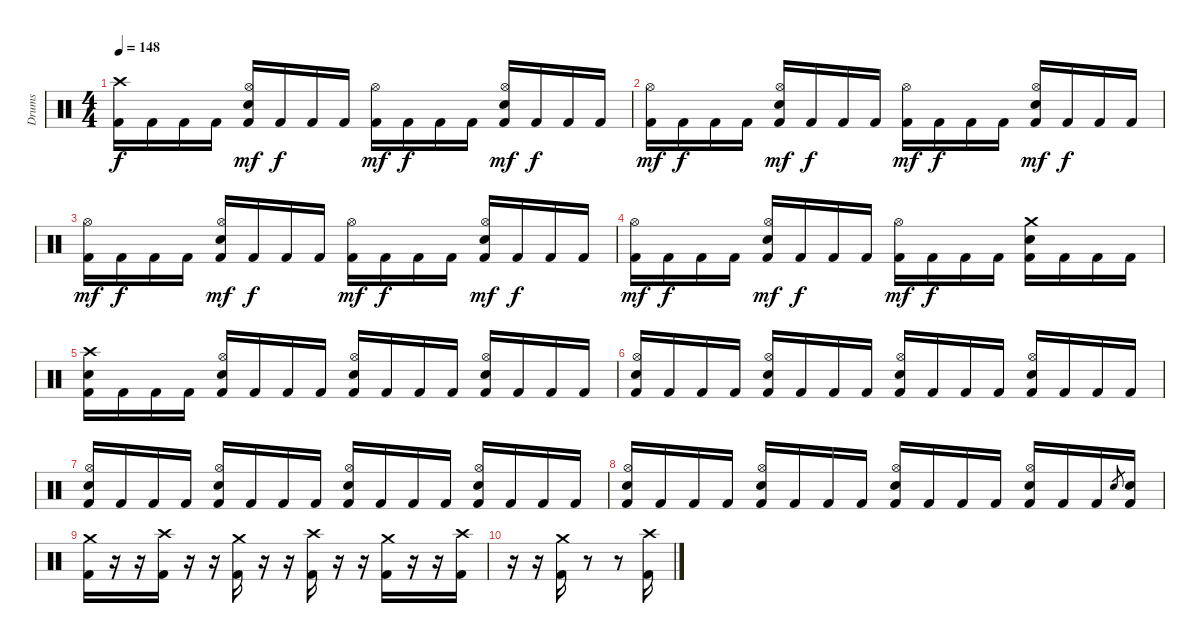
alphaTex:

\track ("Drums" "Drums") {instrument percussion}
\staff {score}
\articulation defaults
\ts (4 4)
\section ("" "")
\tempo 148
\clef neutral
\ks c
("Crash high (hit)" "Kick (hit) 2").16{dy f} "Kick (hit) 2".16 "Kick (hit) 2".16 "Kick (hit) 2".16 ("Hi-Hat (open)" "Electric Snare (hit)" "Kick (hit) 2").16{dy mf} "Kick (hit) 2".16{dy f} "Kick (hit) 2".16 "Kick (hit) 2".16 ("Hi-Hat (open)" "Kick (hit) 2").16{dy mf} "Kick (hit) 2".16{dy f} "Kick (hit) 2".16 "Kick (hit) 2".16 ("Hi-Hat (open)" "Electric Snare (hit)" "Kick (hit) 2").16{dy mf} "Kick (hit) 2".16{dy f} "Kick (hit) 2".16 "Kick (hit) 2".16 |
("Hi-Hat (open)" "Kick (hit) 2").16{dy mf} "Kick (hit) 2".16{dy f} "Kick (hit) 2".16 "Kick (hit) 2".16 ("Hi-Hat (open)" "Electric Snare (hit)" "Kick (hit) 2").16{dy mf} "Kick (hit) 2".16{dy f} "Kick (hit) 2".16 "Kick (hit) 2".16 ("Hi-Hat (open)" "Kick (hit) 2").16{dy mf} "Kick (hit) 2".16{dy f} "Kick (hit) 2".16 "Kick (hit) 2".16 ("Hi-Hat (open)" "Electric Snare (hit)" "Kick (hit) 2").16{dy mf} "Kick (hit) 2".16{dy f} "Kick (hit) 2".16 "Kick (hit) 2".16 |
("Hi-Hat (open)" "Kick (hit) 2").16{dy mf} "Kick (hit) 2".16{dy f} "Kick (hit) 2".16 "Kick (hit) 2".16 ("Hi-Hat (open)" "Electric Snare (hit)" "Kick (hit) 2").16{dy mf} "Kick (hit) 2".16{dy f} "Kick (hit) 2".16 "Kick (hit) 2".16 ("Hi-Hat (open)" "Kick (hit) 2").16{dy mf} "Kick (hit) 2".16{dy f} "Kick (hit) 2".16 "Kick (hit) 2".16 ("Hi-Hat (open)" "Electric Snare (hit)" "Kick (hit) 2").16{dy mf} "Kick (hit) 2".16{dy f} "Kick (hit) 2".16 "Kick (hit) 2".16 |
("Hi-Hat (open)" "Kick (hit) 2").16{dy mf} "Kick (hit) 2".16{dy f} "Kick (hit) 2".16 "Kick (hit) 2".16 ("Hi-Hat (open)" "Electric Snare (hit)" "Kick (hit) 2").16{dy mf} "Kick (hit) 2".16{dy f} "Kick (hit) 2".16 "Kick (hit) 2".16 ("Hi-Hat (open)" "Kick (hit) 2").16{dy mf} "Kick (hit) 2".16{dy f} "Kick (hit) 2".16 "Kick (hit) 2".16 ("Crash medium (hit)" "Electric Snare (hit)" "Kick (hit) 2").16 "Kick (hit) 2".16 "Kick (hit) 2".16 "Kick (hit) 2".16 |
("Crash high (hit)" "Electric Snare (hit)" "Kick (hit) 2").16 "Kick (hit) 2".16 "Kick (hit) 2".16 "Kick (hit) 2".16 ("Hi-Hat (open)" "Electric Snare (hit)" "Kick (hit) 2").16 "Kick (hit) 2".16 "Kick (hit) 2".16 "Kick (hit) 2".16 ("Hi-Hat (open)" "Electric Snare (hit)" "Kick (hit) 2").16 "Kick (hit) 2".16 "Kick (hit) 2".16 "Kick (hit) 2".16 ("Hi-Hat (open)" "Electric Snare (hit)" "Kick (hit) 2").16 "Kick (hit) 2".16 "Kick (hit) 2".16 "Kick (hit) 2".16 |
("Hi-Hat (open)" "Electric Snare (hit)" "Kick (hit) 2").16 "Kick (hit) 2".16 "Kick (hit) 2".16 "Kick (hit) 2".16 ("Hi-Hat (open)" "Electric Snare (hit)" "Kick (hit) 2").16 "Kick (hit) 2".16 "Kick (hit) 2".16 "Kick (hit) 2".16 ("Hi-Hat (open)" "Electric Snare (hit)" "Kick (hit) 2").16 "Kick (hit) 2".16 "Kick (hit) 2".16 "Kick (hit) 2".16 ("Hi-Hat (open)" "Electric Snare (hit)" "Kick (hit) 2").16 "Kick (hit) 2".16 "Kick (hit) 2".16 "Kick (hit) 2".16 |
("Hi-Hat (open)" "Electric Snare (hit)" "Kick (hit) 2").16 "Kick (hit) 2".16 "Kick (hit) 2".16 "Kick (hit) 2".16 ("Hi-Hat (open)" "Electric Snare (hit)" "Kick (hit) 2").16 "Kick (hit) 2".16 "Kick (hit) 2".16 "Kick (hit) 2".16 ("Hi-Hat (open)" "Electric Snare (hit)" "Kick (hit) 2").16 "Kick (hit) 2".16 "Kick (hit) 2".16 "Kick (hit) 2".16 ("Hi-Hat (open)" "Electric Snare (hit)" "Kick (hit) 2").16 "Kick (hit) 2".16 "Kick (hit) 2".16 "Kick (hit) 2".16 |
("Hi-Hat (open)" "Electric Snare (hit)" "Kick (hit) 2").16 "Kick (hit) 2".16 "Kick (hit) 2".16 "Kick (hit) 2".16 ("Hi-Hat (open)" "Electric Snare (hit)" "Kick (hit) 2").16 "Kick (hit) 2".16 "Kick (hit) 2".16 "Kick (hit) 2".16 ("Hi-Hat (open)" "Electric Snare (hit)" "Kick (hit) 2").16 "Kick (hit) 2".16 "Kick (hit) 2".16 "Kick (hit) 2".16 ("Hi-Hat (open)" "Electric Snare (hit)" "Kick (hit) 2").16 "Kick (hit) 2".16 "Kick (hit) 2".16 "Electric Snare (hit)".8{gr} ("Electric Snare (hit)" "Kick (hit) 2").16 |
("Crash medium (hit)" "Kick (hit) 2").16 r.16 r.16 ("Crash high (hit)" "Kick (hit) 2").16 r.16 r.16 ("Crash medium (hit)" "Kick (hit) 2").16 r.16 r.16 ("Crash high (hit)" "Kick (hit) 2").16 r.16 r.16 ("Crash medium (hit)" "Kick (hit) 2").16 r.16 r.16 ("Crash high (hit)" "Kick (hit) 2").16 |
r.16 r.16 ("Crash medium (hit)" "Kick (hit) 2").16 r.8 r.8 ("Crash high (hit)" "Kick (hit) 2").16
